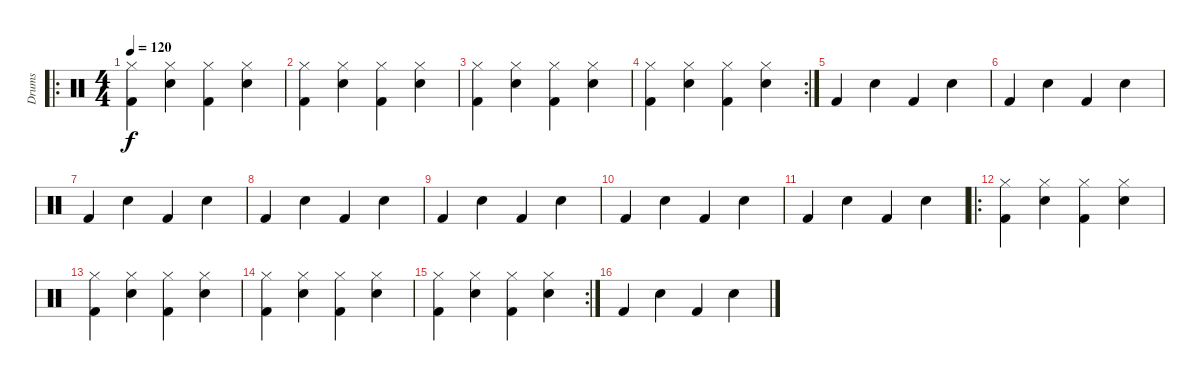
\track ("Drums" "Drums") {instrument percussion}
\staff {score}
\articulation defaults
\ro
\ts (4 4)
\tempo 120
\clef neutral
\ks c
("Hi-Hat (closed)" "Kick (hit) 2").4{dy f} ("Hi-Hat (closed)" "Snare (hit) 2").4 ("Hi-Hat (closed)" "Kick (hit) 2").4 ("Hi-Hat (closed)" "Snare (hit) 2").4 |
("Hi-Hat (closed)" "Kick (hit) 2").4 ("Hi-Hat (closed)" "Snare (hit) 2").4 ("Hi-Hat (closed)" "Kick (hit) 2").4 ("Hi-Hat (closed)" "Snare (hit) 2").4 |
("Hi-Hat (closed)" "Kick (hit) 2").4 ("Hi-Hat (closed)" "Snare (hit) 2").4 ("Hi-Hat (closed)" "Kick (hit) 2").4 ("Hi-Hat (closed)" "Snare (hit) 2").4 |
\rc 2
("Hi-Hat (closed)" "Kick (hit) 2").4 ("Hi-Hat (closed)" "Snare (hit) 2").4 ("Hi-Hat (closed)" "Kick (hit) 2").4 ("Hi-Hat (closed)" "Snare (hit) 2").4 |
"Kick (hit) 2".4 "Snare (hit) 2".4 "Kick (hit) 2".4 "Snare (hit) 2".4 |
"Kick (hit) 2".4 "Snare (hit) 2".4 "Kick (hit) 2".4 "Snare (hit) 2".4 |
"Kick (hit) 2".4 "Snare (hit) 2".4 "Kick (hit) 2".4 "Snare (hit) 2".4 |
"Kick (hit) 2".4 "Snare (hit) 2".4 "Kick (hit) 2".4 "Snare (hit) 2".4 |
"Kick (hit) 2".4 "Snare (hit) 2".4 "Kick (hit) 2".4 "Snare (hit) 2".4 |
"Kick (hit) 2".4 "Snare (hit) 2".4 "Kick (hit) 2".4 "Snare (hit) 2".4 |
"Kick (hit) 2".4 "Snare (hit) 2".4 "Kick (hit) 2".4 "Snare (hit) 2".4 |
\ro
("Hi-Hat (closed)" "Kick (hit) 2").4 ("Hi-Hat (closed)" "Snare (hit) 2").4 ("Hi-Hat (closed)" "Kick (hit) 2").4 ("Hi-Hat (closed)" "Snare (hit) 2").4 |
("Hi-Hat (closed)" "Kick (hit) 2").4 ("Hi-Hat (closed)" "Snare (hit) 2").4 ("Hi-Hat (closed)" "Kick (hit) 2").4 ("Hi-Hat (closed)" "Snare (hit) 2").4 |
("Hi-Hat (closed)" "Kick (hit) 2").4 ("Hi-Hat (closed)" "Snare (hit) 2").4 ("Hi-Hat (closed)" "Kick (hit) 2").4 ("Hi-Hat (closed)" "Snare (hit) 2").4 |
\rc 2
("Hi-Hat (closed)" "Kick (hit) 2").4 ("Hi-Hat (closed)" "Snare (hit) 2").4 ("Hi-Hat (closed)" "Kick (hit) 2").4 ("Hi-Hat (closed)" "Snare (hit) 2").4 |
"Kick (hit) 2".4 "Snare (hit) 2".4 "Kick (hit) 2".4 "Snare (hit) 2".4
